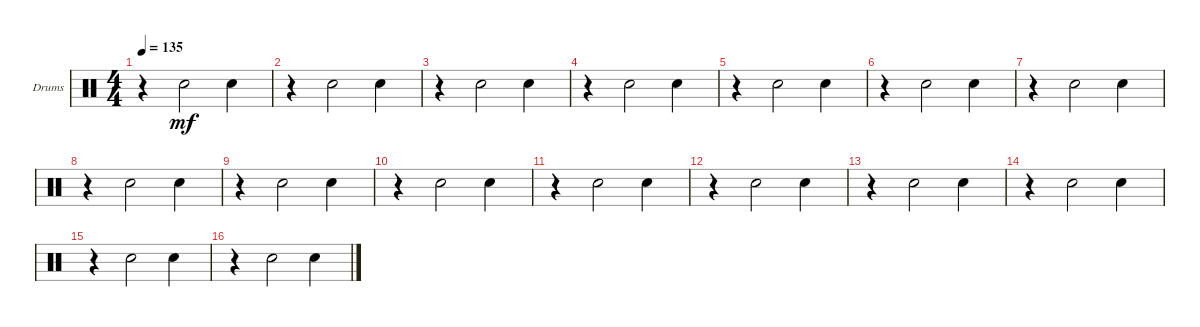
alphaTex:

\bracketExtendMode groupsimilarinstruments
\firstSystemTrackNameOrientation horizontal
\otherSystemsTrackNameOrientation horizontal
\track ("Snare" "Drums") {instrument percussion}
\staff {score}
\articulation defaults
\ts (4 4)
\tempo 135
\clef neutral
\ks c
r.4{dy mf} "Snare (hit) 2".2 "Snare (hit) 2".4 |
r.4 "Snare (hit) 2".2 "Snare (hit) 2".4 |
r.4 "Snare (hit) 2".2 "Snare (hit) 2".4 |
r.4 "Snare (hit) 2".2 "Snare (hit) 2".4 |
r.4 "Snare (hit) 2".2 "Snare (hit) 2".4 |
r.4 "Snare (hit) 2".2 "Snare (hit) 2".4 |
r.4 "Snare (hit) 2".2 "Snare (hit) 2".4 |
r.4 "Snare (hit) 2".2 "Snare (hit) 2".4 |
r.4 "Snare (hit) 2".2 "Snare (hit) 2".4 |
r.4 "Snare (hit) 2".2 "Snare (hit) 2".4 |
r.4 "Snare (hit) 2".2 "Snare (hit) 2".4 |
r.4 "Snare (hit) 2".2 "Snare (hit) 2".4 |
r.4 "Snare (hit) 2".2 "Snare (hit) 2".4 |
r.4 "Snare (hit) 2".2 "Snare (hit) 2".4 |
r.4 "Snare (hit) 2".2 "Snare (hit) 2".4 |
r.4 "Snare (hit) 2".2 "Snare (hit) 2".4
